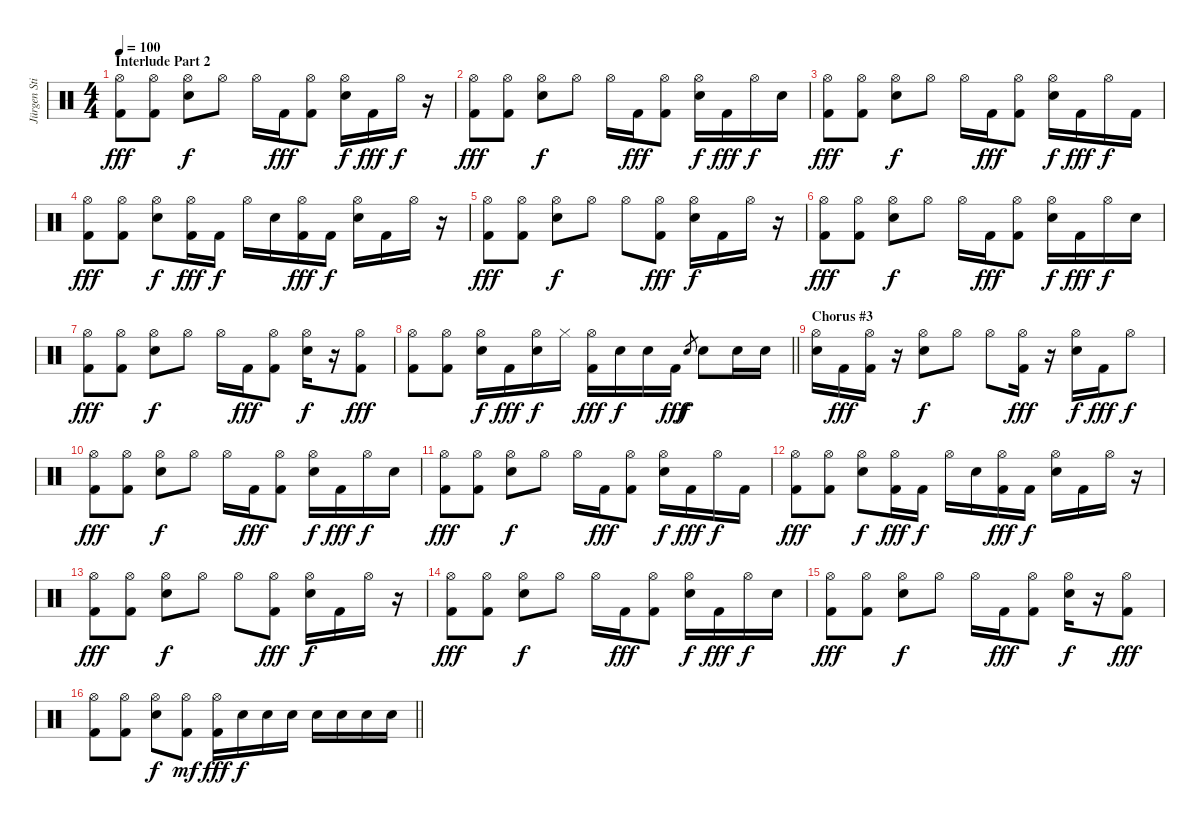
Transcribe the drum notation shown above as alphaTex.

\track ("Jürgen Stiehle" "Jürgen Sti") {instrument percussion}
\staff {score}
\articulation defaults
\ts (4 4)
\section ("" "Interlude Part 2")
\tempo 100
\clef neutral
\ks c
("Hi-Hat (open)" "Kick (hit) 2").8{dy fff} ("Hi-Hat (open)" "Kick (hit) 2").8 ("Hi-Hat (open)" "Electric Snare (hit)").8{dy f} "Hi-Hat (open)".8 "Hi-Hat (open)".16 "Kick (hit) 2".16{dy fff} ("Hi-Hat (open)" "Kick (hit) 2").8 ("Hi-Hat (open)" "Electric Snare (hit)").16{dy f} "Kick (hit) 2".16{dy fff} "Hi-Hat (open)".16{dy f} r.16 |
("Hi-Hat (open)" "Kick (hit) 2").8{dy fff} ("Hi-Hat (open)" "Kick (hit) 2").8 ("Hi-Hat (open)" "Electric Snare (hit)").8{dy f} "Hi-Hat (open)".8 "Hi-Hat (open)".16 "Kick (hit) 2".16{dy fff} ("Hi-Hat (open)" "Kick (hit) 2").8 ("Hi-Hat (open)" "Electric Snare (hit)").16{dy f} "Kick (hit) 2".16{dy fff} "Hi-Hat (open)".16{dy f} "Electric Snare (hit)".16 |
("Hi-Hat (open)" "Kick (hit) 2").8{dy fff} ("Hi-Hat (open)" "Kick (hit) 2").8 ("Hi-Hat (open)" "Electric Snare (hit)").8{dy f} "Hi-Hat (open)".8 "Hi-Hat (open)".16 "Kick (hit) 2".16{dy fff} ("Hi-Hat (open)" "Kick (hit) 2").8 ("Hi-Hat (open)" "Electric Snare (hit)").16{dy f} "Kick (hit) 2".16{dy fff} "Hi-Hat (open)".16{dy f} "Kick (hit) 2".16 |
("Hi-Hat (open)" "Kick (hit) 2").8{dy fff} ("Hi-Hat (open)" "Kick (hit) 2").8 ("Hi-Hat (open)" "Electric Snare (hit)").8{dy f} ("Hi-Hat (open)" "Kick (hit) 2").16{dy fff} "Kick (hit) 2".16{dy f} "Hi-Hat (open)".16 "Electric Snare (hit)".16 ("Hi-Hat (open)" "Kick (hit) 2").16{dy fff} "Kick (hit) 2".16{dy f} ("Hi-Hat (open)" "Electric Snare (hit)").16 "Kick (hit) 2".16 "Hi-Hat (open)".16 r.16 |
("Hi-Hat (open)" "Kick (hit) 2").8{dy fff} ("Hi-Hat (open)" "Kick (hit) 2").8 ("Hi-Hat (open)" "Electric Snare (hit)").8{dy f} "Hi-Hat (open)".8 "Hi-Hat (open)".8 ("Hi-Hat (open)" "Kick (hit) 2").8{dy fff} ("Hi-Hat (open)" "Electric Snare (hit)").16{dy f} "Kick (hit) 2".16 "Hi-Hat (open)".16 r.16 |
("Hi-Hat (open)" "Kick (hit) 2").8{dy fff} ("Hi-Hat (open)" "Kick (hit) 2").8 ("Hi-Hat (open)" "Electric Snare (hit)").8{dy f} "Hi-Hat (open)".8 "Hi-Hat (open)".16 "Kick (hit) 2".16{dy fff} ("Hi-Hat (open)" "Kick (hit) 2").8 ("Hi-Hat (open)" "Electric Snare (hit)").16{dy f} "Kick (hit) 2".16{dy fff} "Hi-Hat (open)".16{dy f} "Electric Snare (hit)".16 |
("Hi-Hat (open)" "Kick (hit) 2").8{dy fff} ("Hi-Hat (open)" "Kick (hit) 2").8 ("Hi-Hat (open)" "Electric Snare (hit)").8{dy f} "Hi-Hat (open)".8 "Hi-Hat (open)".16 "Kick (hit) 2".16{dy fff} ("Hi-Hat (open)" "Kick (hit) 2").8 ("Hi-Hat (open)" "Electric Snare (hit)").16{dy f} r.16 ("Hi-Hat (open)" "Kick (hit) 2").8{dy fff} |
\barLineRight lightlight
("Hi-Hat (open)" "Kick (hit) 2").8 ("Hi-Hat (open)" "Kick (hit) 2").8 ("Hi-Hat (open)" "Electric Snare (hit)").16{dy f} "Kick (hit) 2".16{dy fff} ("Hi-Hat (open)" "Electric Snare (hit)").16{dy f} "Hi-Hat (closed)".16 ("Hi-Hat (open)" "Kick (hit) 2").16{dy fff} "Electric Snare (hit)".16{dy f} "Electric Snare (hit)".16 "Kick (hit) 2".16{dy fff} "Electric Snare (hit)".8{gr dy f} "Electric Snare (hit)".8 "Electric Snare (hit)".16 "Electric Snare (hit)".16 |
\section ("" "Chorus #3")
("Hi-Hat (open)" "Electric Snare (hit)").16 "Kick (hit) 2".16{dy fff} ("Hi-Hat (open)" "Kick (hit) 2").16 r.16 ("Hi-Hat (open)" "Electric Snare (hit)").8{dy f} "Hi-Hat (open)".8 "Hi-Hat (open)".8 ("Hi-Hat (open)" "Kick (hit) 2").16{dy fff} r.16 ("Hi-Hat (open)" "Electric Snare (hit)").16{dy f} "Kick (hit) 2".16{dy fff} "Hi-Hat (open)".8{dy f} |
("Hi-Hat (open)" "Kick (hit) 2").8{dy fff} ("Hi-Hat (open)" "Kick (hit) 2").8 ("Hi-Hat (open)" "Electric Snare (hit)").8{dy f} "Hi-Hat (open)".8 "Hi-Hat (open)".16 "Kick (hit) 2".16{dy fff} ("Hi-Hat (open)" "Kick (hit) 2").8 ("Hi-Hat (open)" "Electric Snare (hit)").16{dy f} "Kick (hit) 2".16{dy fff} "Hi-Hat (open)".16{dy f} "Electric Snare (hit)".16 |
("Hi-Hat (open)" "Kick (hit) 2").8{dy fff} ("Hi-Hat (open)" "Kick (hit) 2").8 ("Hi-Hat (open)" "Electric Snare (hit)").8{dy f} "Hi-Hat (open)".8 "Hi-Hat (open)".16 "Kick (hit) 2".16{dy fff} ("Hi-Hat (open)" "Kick (hit) 2").8 ("Hi-Hat (open)" "Electric Snare (hit)").16{dy f} "Kick (hit) 2".16{dy fff} "Hi-Hat (open)".16{dy f} "Kick (hit) 2".16 |
("Hi-Hat (open)" "Kick (hit) 2").8{dy fff} ("Hi-Hat (open)" "Kick (hit) 2").8 ("Hi-Hat (open)" "Electric Snare (hit)").8{dy f} ("Hi-Hat (open)" "Kick (hit) 2").16{dy fff} "Kick (hit) 2".16{dy f} "Hi-Hat (open)".16 "Electric Snare (hit)".16 ("Hi-Hat (open)" "Kick (hit) 2").16{dy fff} "Kick (hit) 2".16{dy f} ("Hi-Hat (open)" "Electric Snare (hit)").16 "Kick (hit) 2".16 "Hi-Hat (open)".16 r.16 |
("Hi-Hat (open)" "Kick (hit) 2").8{dy fff} ("Hi-Hat (open)" "Kick (hit) 2").8 ("Hi-Hat (open)" "Electric Snare (hit)").8{dy f} "Hi-Hat (open)".8 "Hi-Hat (open)".8 ("Hi-Hat (open)" "Kick (hit) 2").8{dy fff} ("Hi-Hat (open)" "Electric Snare (hit)").16{dy f} "Kick (hit) 2".16 "Hi-Hat (open)".16 r.16 |
("Hi-Hat (open)" "Kick (hit) 2").8{dy fff} ("Hi-Hat (open)" "Kick (hit) 2").8 ("Hi-Hat (open)" "Electric Snare (hit)").8{dy f} "Hi-Hat (open)".8 "Hi-Hat (open)".16 "Kick (hit) 2".16{dy fff} ("Hi-Hat (open)" "Kick (hit) 2").8 ("Hi-Hat (open)" "Electric Snare (hit)").16{dy f} "Kick (hit) 2".16{dy fff} "Hi-Hat (open)".16{dy f} "Electric Snare (hit)".16 |
("Hi-Hat (open)" "Kick (hit) 2").8{dy fff} ("Hi-Hat (open)" "Kick (hit) 2").8 ("Hi-Hat (open)" "Electric Snare (hit)").8{dy f} "Hi-Hat (open)".8 "Hi-Hat (open)".16 "Kick (hit) 2".16{dy fff} ("Hi-Hat (open)" "Kick (hit) 2").8 ("Hi-Hat (open)" "Electric Snare (hit)").16{dy f} r.16 ("Hi-Hat (open)" "Kick (hit) 2").8{dy fff} |
\barLineRight lightlight
("Hi-Hat (open)" "Kick (hit) 2").8 ("Hi-Hat (open)" "Kick (hit) 2").8 ("Hi-Hat (open)" "Electric Snare (hit)").8{dy f} ("Hi-Hat (open)" "Kick (hit) 2").8{dy mf} ("Hi-Hat (open)" "Kick (hit) 2").16{dy fff} "Electric Snare (hit)".16{dy f} "Electric Snare (hit)".16 "Electric Snare (hit)".16 "Electric Snare (hit)".16 "Electric Snare (hit)".16 "Electric Snare (hit)".16 "Electric Snare (hit)".16
